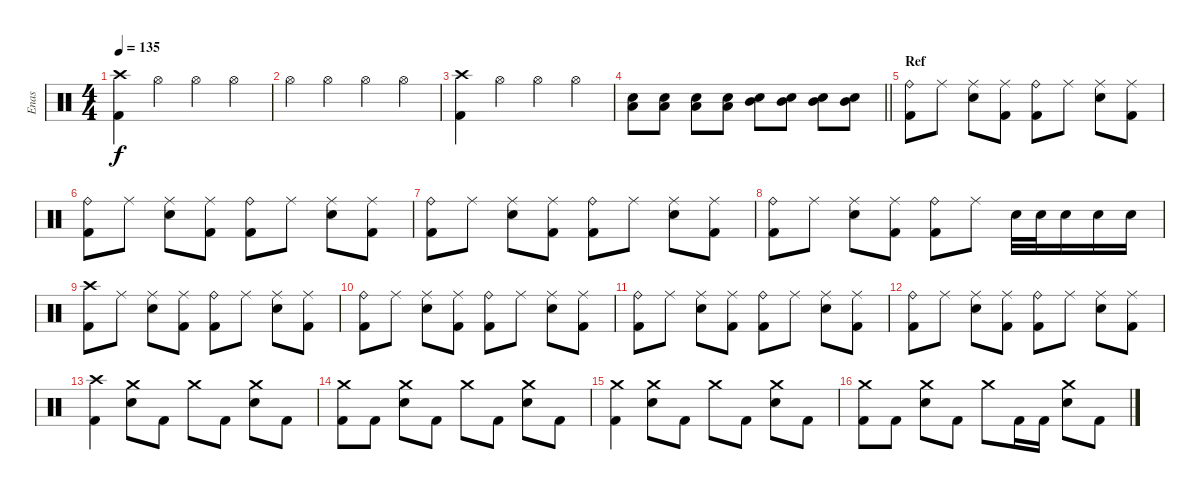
\track ("Enas" "Enas") {instrument percussion}
\staff {score}
\articulation defaults
\ts (4 4)
\tempo 135
\clef neutral
\ks c
("Crash high (hit)" "Kick (hit) 2").4{dy f} "Hi-Hat (open)".4 "Hi-Hat (open)".4 "Hi-Hat (open)".4 |
"Hi-Hat (open)".4 "Hi-Hat (open)".4 "Hi-Hat (open)".4 "Hi-Hat (open)".4 |
("Crash high (hit)" "Kick (hit) 2").4 "Hi-Hat (open)".4 "Hi-Hat (open)".4 "Hi-Hat (open)".4 |
\barLineRight lightlight
("Snare (hit) 2" "Low Tom (hit)").8 ("Snare (hit) 2" "Low Tom (hit)").8 ("Snare (hit) 2" "Low Tom (hit)").8 ("Snare (hit) 2" "Low Tom (hit)").8 ("Snare (hit) 2" "Mid Tom (hit)").8 ("Snare (hit) 2" "Mid Tom (hit)").8 ("Snare (hit) 2" "Mid Tom (hit)").8 ("Snare (hit) 2" "Mid Tom (hit)").8 |
\section ("" "Ref")
("Ride (bell)" "Kick (hit) 2").8 "Ride (middle)".8 ("Ride (middle)" "Snare (hit) 2").8 ("Ride (middle)" "Kick (hit) 2").8 ("Ride (bell)" "Kick (hit) 2").8 "Ride (middle)".8 ("Ride (middle)" "Snare (hit) 2").8 ("Ride (middle)" "Kick (hit) 2").8 |
("Ride (bell)" "Kick (hit) 2").8 "Ride (middle)".8 ("Ride (middle)" "Snare (hit) 2").8 ("Ride (middle)" "Kick (hit) 2").8 ("Ride (bell)" "Kick (hit) 2").8 "Ride (middle)".8 ("Ride (middle)" "Snare (hit) 2").8 ("Ride (middle)" "Kick (hit) 2").8 |
("Ride (bell)" "Kick (hit) 2").8 "Ride (middle)".8 ("Ride (middle)" "Snare (hit) 2").8 ("Ride (middle)" "Kick (hit) 2").8 ("Ride (bell)" "Kick (hit) 2").8 "Ride (middle)".8 ("Ride (middle)" "Snare (hit) 2").8 ("Ride (middle)" "Kick (hit) 2").8 |
("Ride (bell)" "Kick (hit) 2").8 "Ride (middle)".8 ("Ride (middle)" "Snare (hit) 2").8 ("Ride (middle)" "Kick (hit) 2").8 ("Ride (bell)" "Kick (hit) 2").8 "Ride (middle)".8 "Snare (hit) 2".32 "Snare (hit) 2".32 "Snare (hit) 2".16 "Snare (hit) 2".16 "Snare (hit) 2".16 |
("Crash high (hit)" "Kick (hit) 2").8 "Ride (middle)".8 ("Ride (middle)" "Snare (hit) 2").8 ("Ride (middle)" "Kick (hit) 2").8 ("Ride (bell)" "Kick (hit) 2").8 "Ride (middle)".8 ("Ride (middle)" "Snare (hit) 2").8 ("Ride (middle)" "Kick (hit) 2").8 |
("Ride (bell)" "Kick (hit) 2").8 "Ride (middle)".8 ("Ride (middle)" "Snare (hit) 2").8 ("Ride (middle)" "Kick (hit) 2").8 ("Ride (bell)" "Kick (hit) 2").8 "Ride (middle)".8 ("Ride (middle)" "Snare (hit) 2").8 ("Ride (middle)" "Kick (hit) 2").8 |
("Ride (bell)" "Kick (hit) 2").8 "Ride (middle)".8 ("Ride (middle)" "Snare (hit) 2").8 ("Ride (middle)" "Kick (hit) 2").8 ("Ride (bell)" "Kick (hit) 2").8 "Ride (middle)".8 ("Ride (middle)" "Snare (hit) 2").8 ("Ride (middle)" "Kick (hit) 2").8 |
("Ride (bell)" "Kick (hit) 2").8 "Ride (middle)".8 ("Ride (middle)" "Snare (hit) 2").8 ("Ride (middle)" "Kick (hit) 2").8 ("Ride (bell)" "Kick (hit) 2").8 "Ride (middle)".8 ("Ride (middle)" "Snare (hit) 2").8 ("Ride (middle)" "Kick (hit) 2").8 |
("Kick (hit) 2" "Crash high (hit)").4 ("Snare (hit) 2" "Crash medium (hit)").8 "Kick (hit) 2".8 "Crash medium (hit)".8 "Kick (hit) 2".8 ("Snare (hit) 2" "Crash medium (hit)").8 "Kick (hit) 2".8 |
("Kick (hit) 2" "Crash medium (hit)").8 "Kick (hit) 2".8 ("Snare (hit) 2" "Crash medium (hit)").8 "Kick (hit) 2".8 "Crash medium (hit)".8 "Kick (hit) 2".8 ("Snare (hit) 2" "Crash medium (hit)").8 "Kick (hit) 2".8 |
("Kick (hit) 2" "Crash medium (hit)").4 ("Snare (hit) 2" "Crash medium (hit)").8 "Kick (hit) 2".8 "Crash medium (hit)".8 "Kick (hit) 2".8 ("Snare (hit) 2" "Crash medium (hit)").8 "Kick (hit) 2".8 |
("Kick (hit) 2" "Crash medium (hit)").8 "Kick (hit) 2".8 ("Snare (hit) 2" "Crash medium (hit)").8 "Kick (hit) 2".8 "Crash medium (hit)".8 "Kick (hit) 2".16 "Kick (hit) 2".16 ("Snare (hit) 2" "Crash medium (hit)").8 "Kick (hit) 2".8
